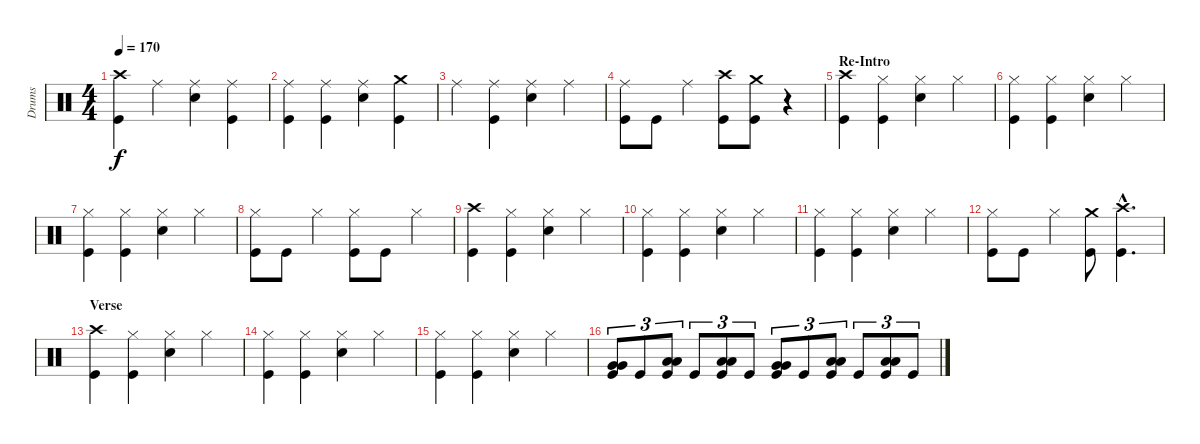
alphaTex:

\track ("Drums" "Drums") {instrument percussion}
\staff {score}
\articulation defaults
\ts (4 4)
\tempo 170
\clef neutral
\ks c
("Crash high (hit)" "Kick (hit)").4{dy f} "Ride (middle)".4 ("Ride (middle)" "Snare (hit) 2").4 ("Ride (middle)" "Kick (hit)").4 |
("Ride (middle)" "Kick (hit)").4 ("Ride (middle)" "Kick (hit)").4 ("Ride (middle)" "Snare (hit) 2").4 ("Crash medium (hit)" "Kick (hit)").4 |
"Ride (middle)".4 ("Ride (middle)" "Kick (hit)").4 ("Ride (middle)" "Snare (hit) 2").4 "Ride (middle)".4 |
("Ride (middle)" "Kick (hit)").8 "Kick (hit)".8 "Ride (middle)".4 ("Crash high (hit)" "Kick (hit)").8 ("Crash medium (hit)" "Kick (hit)").8 r.4 |
\section ("" "Re-Intro")
("Crash high (hit)" "Kick (hit)").4 ("Hi-Hat (closed)" "Kick (hit)").4 ("Hi-Hat (closed)" "Snare (hit) 2").4 "Hi-Hat (closed)".4 |
("Hi-Hat (closed)" "Kick (hit)").4 ("Hi-Hat (closed)" "Kick (hit)").4 ("Hi-Hat (closed)" "Snare (hit) 2").4 "Hi-Hat (closed)".4 |
("Hi-Hat (closed)" "Kick (hit)").4 ("Hi-Hat (closed)" "Kick (hit)").4 ("Hi-Hat (closed)" "Snare (hit) 2").4 "Hi-Hat (closed)".4 |
("Hi-Hat (closed)" "Kick (hit)").8 "Kick (hit)".8 "Hi-Hat (closed)".4 ("Hi-Hat (closed)" "Kick (hit)").8 "Kick (hit)".8 "Hi-Hat (closed)".4 |
("Crash high (hit)" "Kick (hit)").4 ("Hi-Hat (closed)" "Kick (hit)").4 ("Hi-Hat (closed)" "Snare (hit) 2").4 "Hi-Hat (closed)".4 |
("Hi-Hat (closed)" "Kick (hit)").4 ("Hi-Hat (closed)" "Kick (hit)").4 ("Hi-Hat (closed)" "Snare (hit) 2").4 "Hi-Hat (closed)".4 |
("Hi-Hat (closed)" "Kick (hit)").4 ("Hi-Hat (closed)" "Kick (hit)").4 ("Hi-Hat (closed)" "Snare (hit) 2").4 "Hi-Hat (closed)".4 |
("Hi-Hat (closed)" "Kick (hit)").8 "Kick (hit)".8 "Hi-Hat (closed)".4 ("Crash medium (hit)" "Kick (hit)").8 ("Crash high (hit)"{hac} "Kick (hit)"{hac}).4{d} |
\section ("" "Verse")
("Crash high (hit)" "Kick (hit)").4 ("Hi-Hat (closed)" "Kick (hit)").4 ("Hi-Hat (closed)" "Snare (hit) 2").4 "Hi-Hat (closed)".4 |
("Hi-Hat (closed)" "Kick (hit)").4 ("Hi-Hat (closed)" "Kick (hit)").4 ("Hi-Hat (closed)" "Snare (hit) 2").4 "Hi-Hat (closed)".4 |
("Hi-Hat (closed)" "Kick (hit)").4 ("Hi-Hat (closed)" "Kick (hit)").4 ("Hi-Hat (closed)" "Snare (hit) 2").4 "Hi-Hat (closed)".4 |
("Very Low Tom (hit)" "Very Low Tom (hit)" "Kick (hit)").8{tu (3 2)} "Kick (hit)".8{tu (3 2)} ("Low Floor Tom (hit)" "Low Floor Tom (hit)" "Kick (hit)").8{tu (3 2)} "Kick (hit)".8{tu (3 2)} ("Low Floor Tom (hit)" "Low Floor Tom (hit)" "Kick (hit)").8{tu (3 2)} "Kick (hit)".8{tu (3 2)} ("Very Low Tom (hit)" "Very Low Tom (hit)" "Kick (hit)").8{tu (3 2)} "Kick (hit)".8{tu (3 2)} ("Low Floor Tom (hit)" "Low Floor Tom (hit)" "Kick (hit)").8{tu (3 2)} "Kick (hit)".8{tu (3 2)} ("Low Floor Tom (hit)" "Low Floor Tom (hit)" "Kick (hit)").8{tu (3 2)} "Kick (hit)".8{tu (3 2)}
